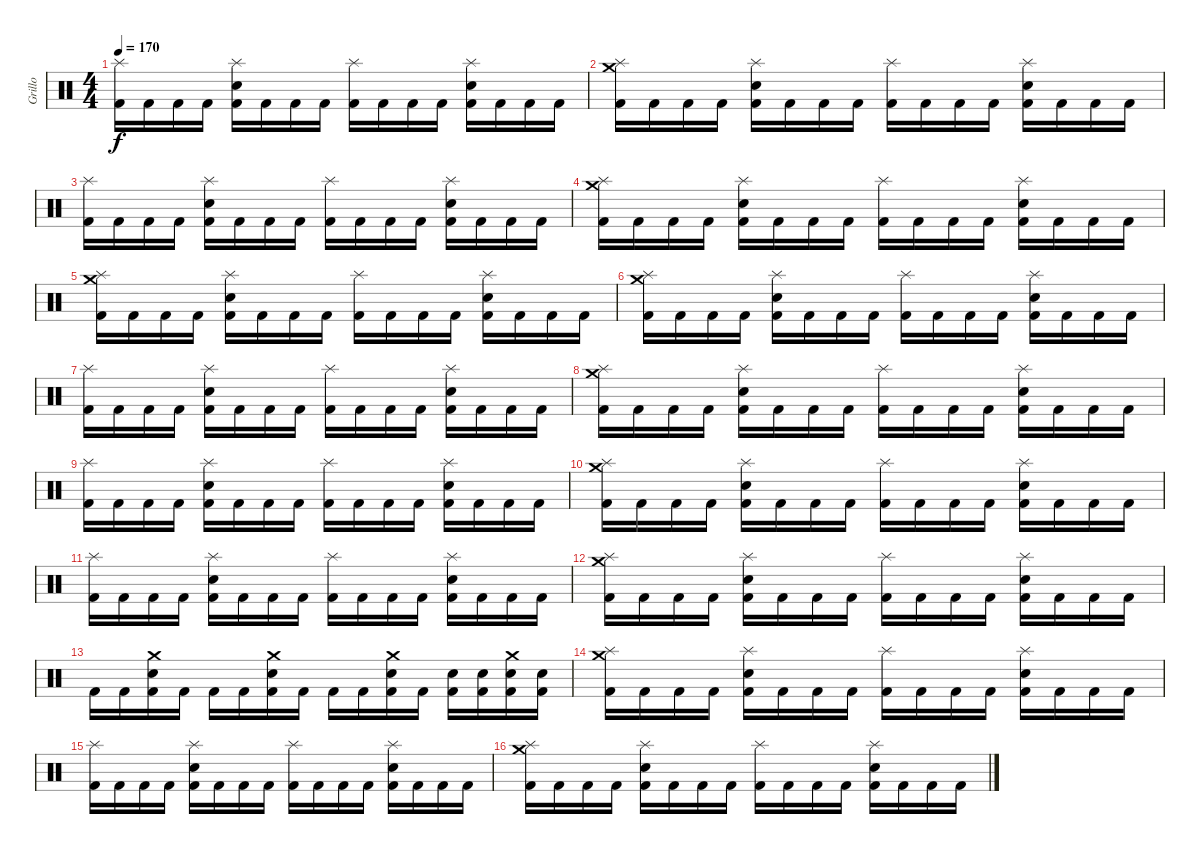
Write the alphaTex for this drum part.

\track ("Grillo" "Grillo") {instrument percussion}
\staff {score}
\articulation defaults
\ts (4 4)
\tempo 170
\clef neutral
\ks c
("Splash (hit)" "Kick (hit) 2").16{dy f} "Kick (hit) 2".16 "Kick (hit) 2".16 "Kick (hit) 2".16 ("Electric Snare (hit)" "Splash (hit)" "Kick (hit) 2").16 "Kick (hit) 2".16 "Kick (hit) 2".16 "Kick (hit) 2".16 ("Splash (hit)" "Kick (hit) 2").16 "Kick (hit) 2".16 "Kick (hit) 2".16 "Kick (hit) 2".16 ("Electric Snare (hit)" "Splash (hit)" "Kick (hit) 2").16 "Kick (hit) 2".16 "Kick (hit) 2".16 "Kick (hit) 2".16 |
("Splash (hit)" "Crash medium (hit)" "Kick (hit) 2").16 "Kick (hit) 2".16 "Kick (hit) 2".16 "Kick (hit) 2".16 ("Electric Snare (hit)" "Splash (hit)" "Kick (hit) 2").16 "Kick (hit) 2".16 "Kick (hit) 2".16 "Kick (hit) 2".16 ("Splash (hit)" "Kick (hit) 2").16 "Kick (hit) 2".16 "Kick (hit) 2".16 "Kick (hit) 2".16 ("Electric Snare (hit)" "Splash (hit)" "Kick (hit) 2").16 "Kick (hit) 2".16 "Kick (hit) 2".16 "Kick (hit) 2".16 |
("Splash (hit)" "Kick (hit) 2").16 "Kick (hit) 2".16 "Kick (hit) 2".16 "Kick (hit) 2".16 ("Electric Snare (hit)" "Splash (hit)" "Kick (hit) 2").16 "Kick (hit) 2".16 "Kick (hit) 2".16 "Kick (hit) 2".16 ("Splash (hit)" "Kick (hit) 2").16 "Kick (hit) 2".16 "Kick (hit) 2".16 "Kick (hit) 2".16 ("Electric Snare (hit)" "Splash (hit)" "Kick (hit) 2").16 "Kick (hit) 2".16 "Kick (hit) 2".16 "Kick (hit) 2".16 |
("Splash (hit)" "Crash medium (hit)" "Kick (hit) 2").16 "Kick (hit) 2".16 "Kick (hit) 2".16 "Kick (hit) 2".16 ("Electric Snare (hit)" "Splash (hit)" "Kick (hit) 2").16 "Kick (hit) 2".16 "Kick (hit) 2".16 "Kick (hit) 2".16 ("Splash (hit)" "Kick (hit) 2").16 "Kick (hit) 2".16 "Kick (hit) 2".16 "Kick (hit) 2".16 ("Electric Snare (hit)" "Splash (hit)" "Kick (hit) 2").16 "Kick (hit) 2".16 "Kick (hit) 2".16 "Kick (hit) 2".16 |
("Splash (hit)" "Crash medium (hit)" "Kick (hit) 2").16 "Kick (hit) 2".16 "Kick (hit) 2".16 "Kick (hit) 2".16 ("Electric Snare (hit)" "Splash (hit)" "Kick (hit) 2").16 "Kick (hit) 2".16 "Kick (hit) 2".16 "Kick (hit) 2".16 ("Splash (hit)" "Kick (hit) 2").16 "Kick (hit) 2".16 "Kick (hit) 2".16 "Kick (hit) 2".16 ("Electric Snare (hit)" "Splash (hit)" "Kick (hit) 2").16 "Kick (hit) 2".16 "Kick (hit) 2".16 "Kick (hit) 2".16 |
("Splash (hit)" "Crash medium (hit)" "Kick (hit) 2").16 "Kick (hit) 2".16 "Kick (hit) 2".16 "Kick (hit) 2".16 ("Electric Snare (hit)" "Splash (hit)" "Kick (hit) 2").16 "Kick (hit) 2".16 "Kick (hit) 2".16 "Kick (hit) 2".16 ("Splash (hit)" "Kick (hit) 2").16 "Kick (hit) 2".16 "Kick (hit) 2".16 "Kick (hit) 2".16 ("Electric Snare (hit)" "Splash (hit)" "Kick (hit) 2").16 "Kick (hit) 2".16 "Kick (hit) 2".16 "Kick (hit) 2".16 |
("Splash (hit)" "Kick (hit) 2").16 "Kick (hit) 2".16 "Kick (hit) 2".16 "Kick (hit) 2".16 ("Electric Snare (hit)" "Splash (hit)" "Kick (hit) 2").16 "Kick (hit) 2".16 "Kick (hit) 2".16 "Kick (hit) 2".16 ("Splash (hit)" "Kick (hit) 2").16 "Kick (hit) 2".16 "Kick (hit) 2".16 "Kick (hit) 2".16 ("Electric Snare (hit)" "Splash (hit)" "Kick (hit) 2").16 "Kick (hit) 2".16 "Kick (hit) 2".16 "Kick (hit) 2".16 |
("Splash (hit)" "Crash medium (hit)" "Kick (hit) 2").16 "Kick (hit) 2".16 "Kick (hit) 2".16 "Kick (hit) 2".16 ("Electric Snare (hit)" "Splash (hit)" "Kick (hit) 2").16 "Kick (hit) 2".16 "Kick (hit) 2".16 "Kick (hit) 2".16 ("Splash (hit)" "Kick (hit) 2").16 "Kick (hit) 2".16 "Kick (hit) 2".16 "Kick (hit) 2".16 ("Electric Snare (hit)" "Splash (hit)" "Kick (hit) 2").16 "Kick (hit) 2".16 "Kick (hit) 2".16 "Kick (hit) 2".16 |
("Splash (hit)" "Kick (hit) 2").16 "Kick (hit) 2".16 "Kick (hit) 2".16 "Kick (hit) 2".16 ("Electric Snare (hit)" "Splash (hit)" "Kick (hit) 2").16 "Kick (hit) 2".16 "Kick (hit) 2".16 "Kick (hit) 2".16 ("Splash (hit)" "Kick (hit) 2").16 "Kick (hit) 2".16 "Kick (hit) 2".16 "Kick (hit) 2".16 ("Electric Snare (hit)" "Splash (hit)" "Kick (hit) 2").16 "Kick (hit) 2".16 "Kick (hit) 2".16 "Kick (hit) 2".16 |
("Splash (hit)" "Crash medium (hit)" "Kick (hit) 2").16 "Kick (hit) 2".16 "Kick (hit) 2".16 "Kick (hit) 2".16 ("Electric Snare (hit)" "Splash (hit)" "Kick (hit) 2").16 "Kick (hit) 2".16 "Kick (hit) 2".16 "Kick (hit) 2".16 ("Splash (hit)" "Kick (hit) 2").16 "Kick (hit) 2".16 "Kick (hit) 2".16 "Kick (hit) 2".16 ("Electric Snare (hit)" "Splash (hit)" "Kick (hit) 2").16 "Kick (hit) 2".16 "Kick (hit) 2".16 "Kick (hit) 2".16 |
("Splash (hit)" "Kick (hit) 2").16 "Kick (hit) 2".16 "Kick (hit) 2".16 "Kick (hit) 2".16 ("Electric Snare (hit)" "Splash (hit)" "Kick (hit) 2").16 "Kick (hit) 2".16 "Kick (hit) 2".16 "Kick (hit) 2".16 ("Splash (hit)" "Kick (hit) 2").16 "Kick (hit) 2".16 "Kick (hit) 2".16 "Kick (hit) 2".16 ("Electric Snare (hit)" "Splash (hit)" "Kick (hit) 2").16 "Kick (hit) 2".16 "Kick (hit) 2".16 "Kick (hit) 2".16 |
("Splash (hit)" "Crash medium (hit)" "Kick (hit) 2").16 "Kick (hit) 2".16 "Kick (hit) 2".16 "Kick (hit) 2".16 ("Electric Snare (hit)" "Splash (hit)" "Kick (hit) 2").16 "Kick (hit) 2".16 "Kick (hit) 2".16 "Kick (hit) 2".16 ("Splash (hit)" "Kick (hit) 2").16 "Kick (hit) 2".16 "Kick (hit) 2".16 "Kick (hit) 2".16 ("Electric Snare (hit)" "Splash (hit)" "Kick (hit) 2").16 "Kick (hit) 2".16 "Kick (hit) 2".16 "Kick (hit) 2".16 |
"Kick (hit) 2".16 "Kick (hit) 2".16 ("Electric Snare (hit)" "Crash medium (hit)" "Kick (hit) 2").16 "Kick (hit) 2".16 "Kick (hit) 2".16 "Kick (hit) 2".16 ("Electric Snare (hit)" "Crash medium (hit)" "Kick (hit) 2").16 "Kick (hit) 2".16 "Kick (hit) 2".16 "Kick (hit) 2".16 ("Electric Snare (hit)" "Crash medium (hit)" "Kick (hit) 2").16 "Kick (hit) 2".16 ("Electric Snare (hit)" "Kick (hit) 2").16 ("Electric Snare (hit)" "Kick (hit) 2").16 ("Electric Snare (hit)" "Crash medium (hit)" "Kick (hit) 2").16 ("Electric Snare (hit)" "Kick (hit) 2").16 |
("Splash (hit)" "Crash medium (hit)" "Kick (hit) 2").16 "Kick (hit) 2".16 "Kick (hit) 2".16 "Kick (hit) 2".16 ("Electric Snare (hit)" "Splash (hit)" "Kick (hit) 2").16 "Kick (hit) 2".16 "Kick (hit) 2".16 "Kick (hit) 2".16 ("Splash (hit)" "Kick (hit) 2").16 "Kick (hit) 2".16 "Kick (hit) 2".16 "Kick (hit) 2".16 ("Electric Snare (hit)" "Splash (hit)" "Kick (hit) 2").16 "Kick (hit) 2".16 "Kick (hit) 2".16 "Kick (hit) 2".16 |
("Splash (hit)" "Kick (hit) 2").16 "Kick (hit) 2".16 "Kick (hit) 2".16 "Kick (hit) 2".16 ("Electric Snare (hit)" "Splash (hit)" "Kick (hit) 2").16 "Kick (hit) 2".16 "Kick (hit) 2".16 "Kick (hit) 2".16 ("Splash (hit)" "Kick (hit) 2").16 "Kick (hit) 2".16 "Kick (hit) 2".16 "Kick (hit) 2".16 ("Electric Snare (hit)" "Splash (hit)" "Kick (hit) 2").16 "Kick (hit) 2".16 "Kick (hit) 2".16 "Kick (hit) 2".16 |
("Splash (hit)" "Crash medium (hit)" "Kick (hit) 2").16 "Kick (hit) 2".16 "Kick (hit) 2".16 "Kick (hit) 2".16 ("Electric Snare (hit)" "Splash (hit)" "Kick (hit) 2").16 "Kick (hit) 2".16 "Kick (hit) 2".16 "Kick (hit) 2".16 ("Splash (hit)" "Kick (hit) 2").16 "Kick (hit) 2".16 "Kick (hit) 2".16 "Kick (hit) 2".16 ("Electric Snare (hit)" "Splash (hit)" "Kick (hit) 2").16 "Kick (hit) 2".16 "Kick (hit) 2".16 "Kick (hit) 2".16
